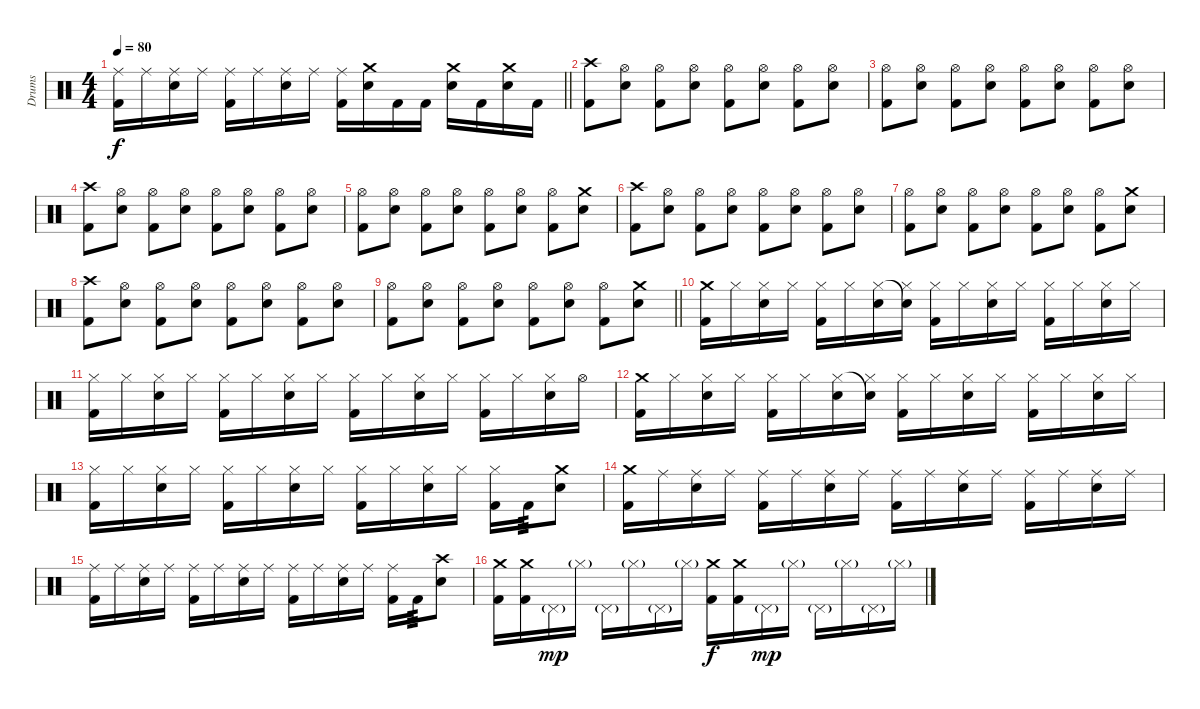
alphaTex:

\track ("Drums" "Drums") {instrument percussion}
\staff {score}
\articulation defaults
\ts (4 4)
\tempo 80
\clef neutral
\barLineRight lightlight
\ks c
("Ride (middle)" "Kick (hit) 2").16{dy f} "Ride (middle)".16 ("Ride (middle)" "Electric Snare (hit)").16 "Ride (middle)".16 ("Ride (middle)" "Kick (hit) 2").16 "Ride (middle)".16 ("Ride (middle)" "Electric Snare (hit)").16 "Ride (middle)".16 ("Ride (middle)" "Kick (hit) 2").16 ("Crash medium (hit)" "Electric Snare (hit)").16 "Kick (hit) 2".16 "Kick (hit) 2".16 ("Crash medium (hit)" "Electric Snare (hit)").16 "Kick (hit) 2".16 ("Crash medium (hit)" "Electric Snare (hit)").16 "Kick (hit) 2".16 |
("Crash high (hit)" "Kick (hit) 2").8 ("Hi-Hat (open)" "Electric Snare (hit)").8 ("Hi-Hat (open)" "Kick (hit) 2").8 ("Hi-Hat (open)" "Electric Snare (hit)").8 ("Hi-Hat (open)" "Kick (hit) 2").8 ("Hi-Hat (open)" "Electric Snare (hit)").8 ("Hi-Hat (open)" "Kick (hit) 2").8 ("Hi-Hat (open)" "Electric Snare (hit)").8 |
("Hi-Hat (open)" "Kick (hit) 2").8 ("Hi-Hat (open)" "Electric Snare (hit)").8 ("Hi-Hat (open)" "Kick (hit) 2").8 ("Hi-Hat (open)" "Electric Snare (hit)").8 ("Hi-Hat (open)" "Kick (hit) 2").8 ("Hi-Hat (open)" "Electric Snare (hit)").8 ("Hi-Hat (open)" "Kick (hit) 2").8 ("Hi-Hat (open)" "Electric Snare (hit)").8 |
("Crash high (hit)" "Kick (hit) 2").8 ("Hi-Hat (open)" "Electric Snare (hit)").8 ("Hi-Hat (open)" "Kick (hit) 2").8 ("Hi-Hat (open)" "Electric Snare (hit)").8 ("Hi-Hat (open)" "Kick (hit) 2").8 ("Hi-Hat (open)" "Electric Snare (hit)").8 ("Hi-Hat (open)" "Kick (hit) 2").8 ("Hi-Hat (open)" "Electric Snare (hit)").8 |
("Hi-Hat (open)" "Kick (hit) 2").8 ("Hi-Hat (open)" "Electric Snare (hit)").8 ("Hi-Hat (open)" "Kick (hit) 2").8 ("Hi-Hat (open)" "Electric Snare (hit)").8 ("Hi-Hat (open)" "Kick (hit) 2").8 ("Hi-Hat (open)" "Electric Snare (hit)").8 ("Hi-Hat (open)" "Kick (hit) 2").8 ("Crash medium (hit)" "Electric Snare (hit)").8 |
("Crash high (hit)" "Kick (hit) 2").8 ("Hi-Hat (open)" "Electric Snare (hit)").8 ("Hi-Hat (open)" "Kick (hit) 2").8 ("Hi-Hat (open)" "Electric Snare (hit)").8 ("Hi-Hat (open)" "Kick (hit) 2").8 ("Hi-Hat (open)" "Electric Snare (hit)").8 ("Hi-Hat (open)" "Kick (hit) 2").8 ("Hi-Hat (open)" "Electric Snare (hit)").8 |
("Hi-Hat (open)" "Kick (hit) 2").8 ("Hi-Hat (open)" "Electric Snare (hit)").8 ("Hi-Hat (open)" "Kick (hit) 2").8 ("Hi-Hat (open)" "Electric Snare (hit)").8 ("Hi-Hat (open)" "Kick (hit) 2").8 ("Hi-Hat (open)" "Electric Snare (hit)").8 ("Hi-Hat (open)" "Kick (hit) 2").8 ("Crash medium (hit)" "Electric Snare (hit)").8 |
("Crash high (hit)" "Kick (hit) 2").8 ("Hi-Hat (open)" "Electric Snare (hit)").8 ("Hi-Hat (open)" "Kick (hit) 2").8 ("Hi-Hat (open)" "Electric Snare (hit)").8 ("Hi-Hat (open)" "Kick (hit) 2").8 ("Hi-Hat (open)" "Electric Snare (hit)").8 ("Hi-Hat (open)" "Kick (hit) 2").8 ("Hi-Hat (open)" "Electric Snare (hit)").8 |
\barLineRight lightlight
("Hi-Hat (open)" "Kick (hit) 2").8 ("Hi-Hat (open)" "Electric Snare (hit)").8 ("Hi-Hat (open)" "Kick (hit) 2").8 ("Hi-Hat (open)" "Electric Snare (hit)").8 ("Hi-Hat (open)" "Kick (hit) 2").8 ("Hi-Hat (open)" "Electric Snare (hit)").8 ("Hi-Hat (open)" "Kick (hit) 2").8 ("Crash medium (hit)" "Electric Snare (hit)").8 |
("Crash medium (hit)" "Kick (hit) 2").16 "Hi-Hat (closed)".16 ("Hi-Hat (closed)" "Electric Snare (hit)").16 "Hi-Hat (closed)".16 ("Hi-Hat (closed)" "Kick (hit) 2").16 "Hi-Hat (closed)".16 ("Hi-Hat (closed)" "Electric Snare (hit)").16 ("Snare (hit)"{t} "Hi-Hat (closed)").16 ("Hi-Hat (closed)" "Kick (hit) 2").16 "Hi-Hat (closed)".16 ("Hi-Hat (closed)" "Electric Snare (hit)").16 "Hi-Hat (closed)".16 ("Hi-Hat (closed)" "Kick (hit) 2").16 "Hi-Hat (closed)".16 ("Hi-Hat (closed)" "Electric Snare (hit)").16 "Hi-Hat (closed)".16 |
("Hi-Hat (closed)" "Kick (hit) 2").16 "Hi-Hat (closed)".16 ("Hi-Hat (closed)" "Electric Snare (hit)").16 "Hi-Hat (closed)".16 ("Hi-Hat (closed)" "Kick (hit) 2").16 "Hi-Hat (closed)".16 ("Hi-Hat (closed)" "Electric Snare (hit)").16 "Hi-Hat (closed)".16 ("Hi-Hat (closed)" "Kick (hit) 2").16 "Hi-Hat (closed)".16 ("Hi-Hat (closed)" "Electric Snare (hit)").16 "Hi-Hat (closed)".16 ("Hi-Hat (closed)" "Kick (hit) 2").16 "Hi-Hat (closed)".16 ("Hi-Hat (closed)" "Electric Snare (hit)").16 "Hi-Hat (open)".16 |
("Crash medium (hit)" "Kick (hit) 2").16 "Hi-Hat (closed)".16 ("Hi-Hat (closed)" "Electric Snare (hit)").16 "Hi-Hat (closed)".16 ("Hi-Hat (closed)" "Kick (hit) 2").16 "Hi-Hat (closed)".16 ("Hi-Hat (closed)" "Electric Snare (hit)").16 ("Snare (hit)"{t} "Hi-Hat (closed)").16 ("Hi-Hat (closed)" "Kick (hit) 2").16 "Hi-Hat (closed)".16 ("Hi-Hat (closed)" "Electric Snare (hit)").16 "Hi-Hat (closed)".16 ("Hi-Hat (closed)" "Kick (hit) 2").16 "Hi-Hat (closed)".16 ("Hi-Hat (closed)" "Electric Snare (hit)").16 "Hi-Hat (closed)".16 |
("Hi-Hat (closed)" "Kick (hit) 2").16 "Hi-Hat (closed)".16 ("Hi-Hat (closed)" "Electric Snare (hit)").16 "Hi-Hat (closed)".16 ("Hi-Hat (closed)" "Kick (hit) 2").16 "Hi-Hat (closed)".16 ("Hi-Hat (closed)" "Electric Snare (hit)").16 "Hi-Hat (closed)".16 ("Hi-Hat (closed)" "Kick (hit) 2").16 "Hi-Hat (closed)".16 ("Hi-Hat (closed)" "Electric Snare (hit)").16 "Hi-Hat (closed)".16 ("Hi-Hat (closed)" "Kick (hit) 2").16 "Kick (hit) 2".16{tp 3} ("Crash medium (hit)" "Electric Snare (hit)").8 |
("Crash medium (hit)" "Kick (hit) 2").16 "Ride (middle)".16 ("Ride (middle)" "Electric Snare (hit)").16 "Ride (middle)".16 ("Ride (middle)" "Kick (hit) 2").16 "Ride (middle)".16 ("Ride (middle)" "Electric Snare (hit)").16 "Ride (middle)".16 ("Ride (middle)" "Kick (hit) 2").16 "Ride (middle)".16 ("Ride (middle)" "Electric Snare (hit)").16 "Ride (middle)".16 ("Ride (middle)" "Kick (hit) 2").16 "Ride (middle)".16 ("Ride (middle)" "Electric Snare (hit)").16 "Ride (middle)".16 |
("Ride (middle)" "Kick (hit) 2").16 "Ride (middle)".16 ("Ride (middle)" "Electric Snare (hit)").16 "Ride (middle)".16 ("Ride (middle)" "Kick (hit) 2").16 "Ride (middle)".16 ("Ride (middle)" "Electric Snare (hit)").16 "Ride (middle)".16 ("Ride (middle)" "Kick (hit) 2").16 "Ride (middle)".16 ("Ride (middle)" "Electric Snare (hit)").16 "Ride (middle)".16 ("Ride (middle)" "Kick (hit) 2").16 "Kick (hit) 2".16{tp 3} ("Crash high (hit)" "Electric Snare (hit)").8 |
("Crash medium (hit)" "Kick (hit) 2").16 ("Crash medium (hit)" "Kick (hit) 2").16 "Pedal Hi-Hat (hit)"{g}.16{dy mp} "Hi-Hat (closed)"{g}.16 "Pedal Hi-Hat (hit)"{g}.16 "Hi-Hat (closed)"{g}.16 "Pedal Hi-Hat (hit)"{g}.16 "Hi-Hat (closed)"{g}.16 ("Crash medium (hit)" "Kick (hit) 2").16{dy f} ("Crash medium (hit)" "Kick (hit) 2").16 "Pedal Hi-Hat (hit)"{g}.16{dy mp} "Hi-Hat (closed)"{g}.16 "Pedal Hi-Hat (hit)"{g}.16 "Hi-Hat (closed)"{g}.16 "Pedal Hi-Hat (hit)"{g}.16 "Hi-Hat (closed)"{g}.16
